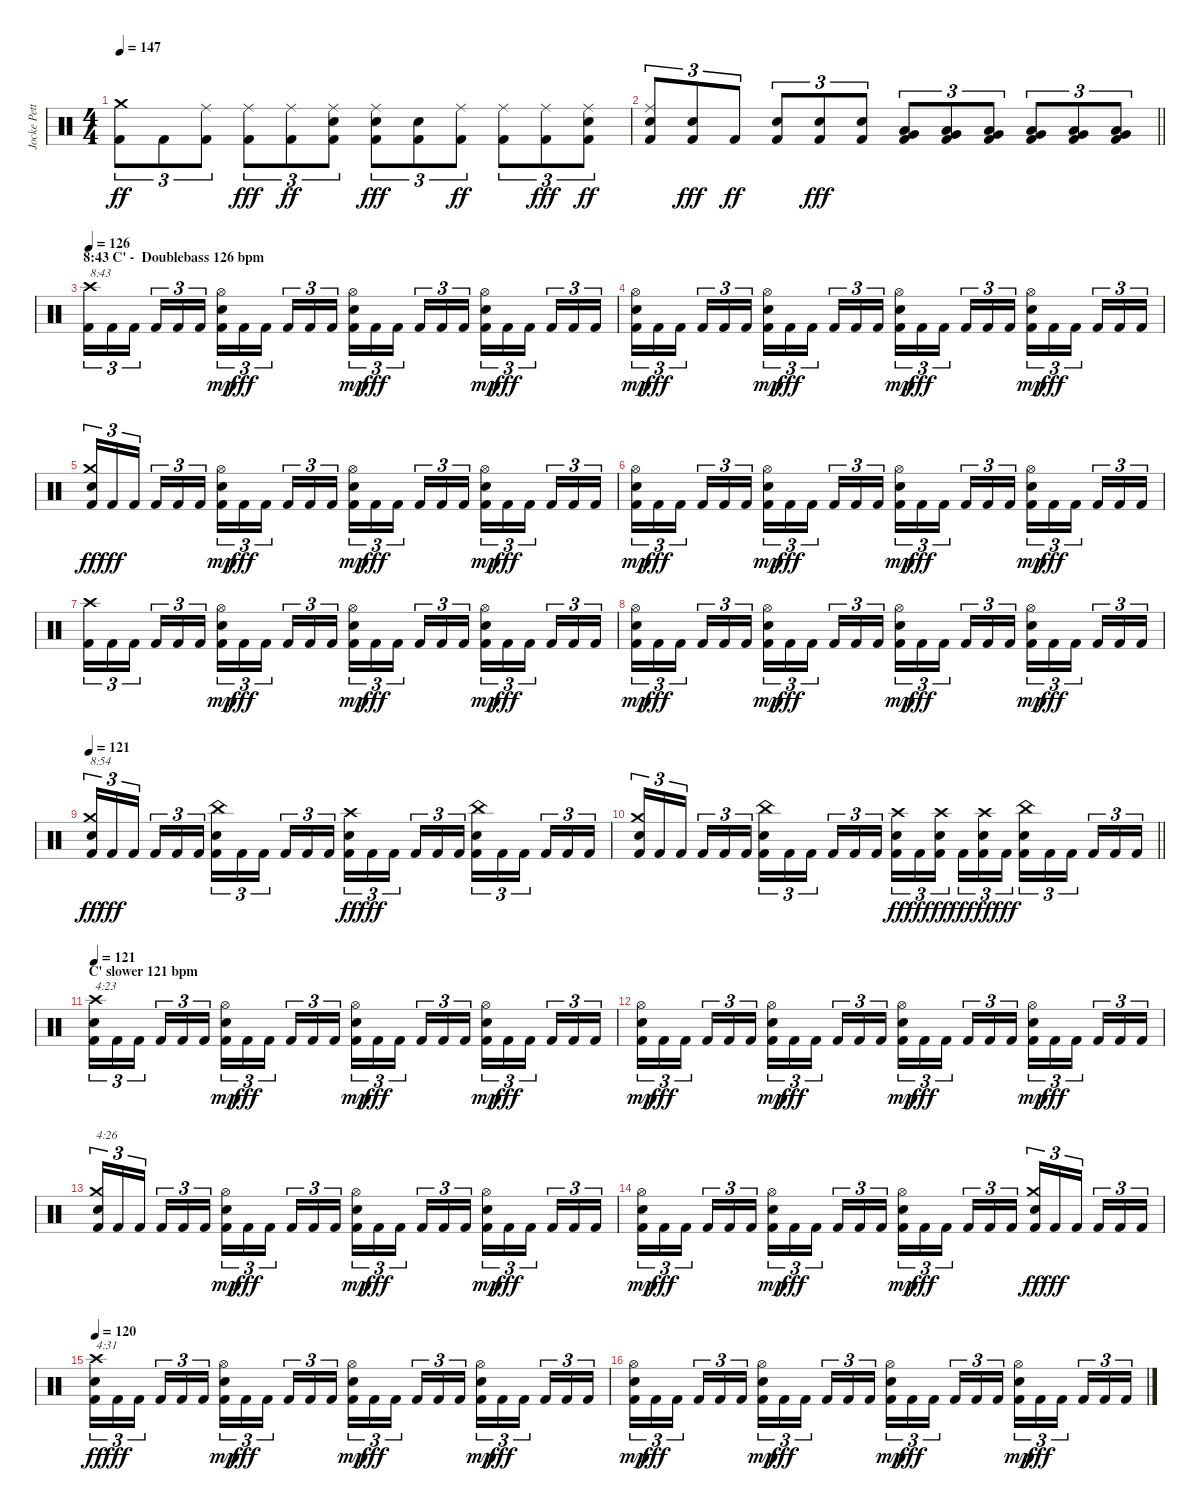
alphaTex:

\track ("Jocke Pettersson" "Jocke Pett") {instrument percussion}
\staff {score}
\articulation defaults
\ts (4 4)
\tempo 147
\clef neutral
\ks c
("Kick (hit) 2" "Crash medium (hit)").8{tu (3 2) dy ff} "Kick (hit) 2".8{tu (3 2)} ("Kick (hit) 2" "Ride (middle)").8{tu (3 2)} ("Kick (hit) 2" "Ride (middle)").8{tu (3 2) dy fff} ("Kick (hit) 2" "Ride (middle)").8{tu (3 2) dy ff} ("Kick (hit) 2" "Electric Snare (hit)" "Ride (middle)").8{tu (3 2)} ("Kick (hit) 2" "Electric Snare (hit)" "Ride (middle)").8{tu (3 2) dy fff} ("Kick (hit) 2" "Electric Snare (hit)").8{tu (3 2)} ("Kick (hit) 2" "Ride (middle)").8{tu (3 2) dy ff} ("Kick (hit) 2" "Ride (middle)").8{tu (3 2)} ("Kick (hit) 2" "Ride (middle)").8{tu (3 2) dy fff} ("Kick (hit) 2" "Electric Snare (hit)" "Ride (middle)").8{tu (3 2) dy ff} |
\barLineRight lightlight
("Kick (hit) 2" "Electric Snare (hit)" "Ride (middle)").8{tu (3 2)} ("Kick (hit) 2" "Electric Snare (hit)").8{tu (3 2) dy fff} "Kick (hit) 2".8{tu (3 2) dy ff} ("Kick (hit) 2" "Electric Snare (hit)").8{tu (3 2)} ("Kick (hit) 2" "Electric Snare (hit)").8{tu (3 2) dy fff} ("Kick (hit) 2" "Electric Snare (hit)").8{tu (3 2)} ("Kick (hit) 2" "Low Tom (hit)" "Very Low Tom (hit)").8{tu (3 2)} ("Kick (hit) 2" "Low Tom (hit)" "Very Low Tom (hit)").8{tu (3 2)} ("Kick (hit) 2" "Low Tom (hit)" "Very Low Tom (hit)").8{tu (3 2)} ("Kick (hit) 2" "Very Low Tom (hit)" "Low Floor Tom (hit)").8{tu (3 2)} ("Kick (hit) 2" "Very Low Tom (hit)" "Low Floor Tom (hit)").8{tu (3 2)} ("Kick (hit) 2" "Very Low Tom (hit)" "Low Floor Tom (hit)").8{tu (3 2)} |
\section ("" "8:43 C' -  Doublebass 126 bpm")
\tempo 126
("Kick (hit) 2" "Crash high (hit)").16{tu (3 2) txt "8:43"} "Kick (hit) 2".16{tu (3 2)} "Kick (hit) 2".16{tu (3 2) beam splitsecondary} "Kick (hit) 2".16{tu (3 2)} "Kick (hit) 2".16{tu (3 2)} "Kick (hit) 2".16{tu (3 2)} ("Kick (hit) 2" "Electric Snare (hit)" "Hi-Hat (open)").16{tu (3 2) dy mp} "Kick (hit) 2".16{tu (3 2) dy fff} "Kick (hit) 2".16{tu (3 2) beam splitsecondary} "Kick (hit) 2".16{tu (3 2)} "Kick (hit) 2".16{tu (3 2)} "Kick (hit) 2".16{tu (3 2)} ("Kick (hit) 2" "Electric Snare (hit)" "Hi-Hat (open)").16{tu (3 2) dy mp} "Kick (hit) 2".16{tu (3 2) dy fff} "Kick (hit) 2".16{tu (3 2) beam splitsecondary} "Kick (hit) 2".16{tu (3 2)} "Kick (hit) 2".16{tu (3 2)} "Kick (hit) 2".16{tu (3 2)} ("Kick (hit) 2" "Electric Snare (hit)" "Hi-Hat (open)").16{tu (3 2) dy mp} "Kick (hit) 2".16{tu (3 2) dy fff} "Kick (hit) 2".16{tu (3 2) beam splitsecondary} "Kick (hit) 2".16{tu (3 2)} "Kick (hit) 2".16{tu (3 2)} "Kick (hit) 2".16{tu (3 2)} |
("Kick (hit) 2" "Electric Snare (hit)" "Hi-Hat (open)").16{tu (3 2) dy mp} "Kick (hit) 2".16{tu (3 2) dy fff} "Kick (hit) 2".16{tu (3 2) beam splitsecondary} "Kick (hit) 2".16{tu (3 2)} "Kick (hit) 2".16{tu (3 2)} "Kick (hit) 2".16{tu (3 2)} ("Kick (hit) 2" "Electric Snare (hit)" "Hi-Hat (open)").16{tu (3 2) dy mp} "Kick (hit) 2".16{tu (3 2) dy fff} "Kick (hit) 2".16{tu (3 2) beam splitsecondary} "Kick (hit) 2".16{tu (3 2)} "Kick (hit) 2".16{tu (3 2)} "Kick (hit) 2".16{tu (3 2)} ("Kick (hit) 2" "Electric Snare (hit)" "Hi-Hat (open)").16{tu (3 2) dy mp} "Kick (hit) 2".16{tu (3 2) dy fff} "Kick (hit) 2".16{tu (3 2) beam splitsecondary} "Kick (hit) 2".16{tu (3 2)} "Kick (hit) 2".16{tu (3 2)} "Kick (hit) 2".16{tu (3 2)} ("Kick (hit) 2" "Electric Snare (hit)" "Hi-Hat (open)").16{tu (3 2) dy mp} "Kick (hit) 2".16{tu (3 2) dy fff} "Kick (hit) 2".16{tu (3 2) beam splitsecondary} "Kick (hit) 2".16{tu (3 2)} "Kick (hit) 2".16{tu (3 2)} "Kick (hit) 2".16{tu (3 2)} |
("Kick (hit) 2" "Electric Snare (hit)" "Crash medium (hit)").16{tu (3 2) dy ff} "Kick (hit) 2".16{tu (3 2) dy fff} "Kick (hit) 2".16{tu (3 2) beam splitsecondary} "Kick (hit) 2".16{tu (3 2)} "Kick (hit) 2".16{tu (3 2)} "Kick (hit) 2".16{tu (3 2)} ("Kick (hit) 2" "Electric Snare (hit)" "Hi-Hat (open)").16{tu (3 2) dy mp} "Kick (hit) 2".16{tu (3 2) dy fff} "Kick (hit) 2".16{tu (3 2) beam splitsecondary} "Kick (hit) 2".16{tu (3 2)} "Kick (hit) 2".16{tu (3 2)} "Kick (hit) 2".16{tu (3 2)} ("Kick (hit) 2" "Electric Snare (hit)" "Hi-Hat (open)").16{tu (3 2) dy mp} "Kick (hit) 2".16{tu (3 2) dy fff} "Kick (hit) 2".16{tu (3 2) beam splitsecondary} "Kick (hit) 2".16{tu (3 2)} "Kick (hit) 2".16{tu (3 2)} "Kick (hit) 2".16{tu (3 2)} ("Kick (hit) 2" "Electric Snare (hit)" "Hi-Hat (open)").16{tu (3 2) dy mp} "Kick (hit) 2".16{tu (3 2) dy fff} "Kick (hit) 2".16{tu (3 2) beam splitsecondary} "Kick (hit) 2".16{tu (3 2)} "Kick (hit) 2".16{tu (3 2)} "Kick (hit) 2".16{tu (3 2)} |
("Kick (hit) 2" "Electric Snare (hit)" "Hi-Hat (open)").16{tu (3 2) dy mp} "Kick (hit) 2".16{tu (3 2) dy fff} "Kick (hit) 2".16{tu (3 2) beam splitsecondary} "Kick (hit) 2".16{tu (3 2)} "Kick (hit) 2".16{tu (3 2)} "Kick (hit) 2".16{tu (3 2)} ("Kick (hit) 2" "Electric Snare (hit)" "Hi-Hat (open)").16{tu (3 2) dy mp} "Kick (hit) 2".16{tu (3 2) dy fff} "Kick (hit) 2".16{tu (3 2) beam splitsecondary} "Kick (hit) 2".16{tu (3 2)} "Kick (hit) 2".16{tu (3 2)} "Kick (hit) 2".16{tu (3 2)} ("Kick (hit) 2" "Electric Snare (hit)" "Hi-Hat (open)").16{tu (3 2) dy mp} "Kick (hit) 2".16{tu (3 2) dy fff} "Kick (hit) 2".16{tu (3 2) beam splitsecondary} "Kick (hit) 2".16{tu (3 2)} "Kick (hit) 2".16{tu (3 2)} "Kick (hit) 2".16{tu (3 2)} ("Kick (hit) 2" "Electric Snare (hit)" "Hi-Hat (open)").16{tu (3 2) dy mp} "Kick (hit) 2".16{tu (3 2) dy fff} "Kick (hit) 2".16{tu (3 2) beam splitsecondary} "Kick (hit) 2".16{tu (3 2)} "Kick (hit) 2".16{tu (3 2)} "Kick (hit) 2".16{tu (3 2)} |
("Kick (hit) 2" "Crash high (hit)").16{tu (3 2)} "Kick (hit) 2".16{tu (3 2)} "Kick (hit) 2".16{tu (3 2) beam splitsecondary} "Kick (hit) 2".16{tu (3 2)} "Kick (hit) 2".16{tu (3 2)} "Kick (hit) 2".16{tu (3 2)} ("Kick (hit) 2" "Electric Snare (hit)" "Hi-Hat (open)").16{tu (3 2) dy mp} "Kick (hit) 2".16{tu (3 2) dy fff} "Kick (hit) 2".16{tu (3 2) beam splitsecondary} "Kick (hit) 2".16{tu (3 2)} "Kick (hit) 2".16{tu (3 2)} "Kick (hit) 2".16{tu (3 2)} ("Kick (hit) 2" "Electric Snare (hit)" "Hi-Hat (open)").16{tu (3 2) dy mp} "Kick (hit) 2".16{tu (3 2) dy fff} "Kick (hit) 2".16{tu (3 2) beam splitsecondary} "Kick (hit) 2".16{tu (3 2)} "Kick (hit) 2".16{tu (3 2)} "Kick (hit) 2".16{tu (3 2)} ("Kick (hit) 2" "Electric Snare (hit)" "Hi-Hat (open)").16{tu (3 2) dy mp} "Kick (hit) 2".16{tu (3 2) dy fff} "Kick (hit) 2".16{tu (3 2) beam splitsecondary} "Kick (hit) 2".16{tu (3 2)} "Kick (hit) 2".16{tu (3 2)} "Kick (hit) 2".16{tu (3 2)} |
("Kick (hit) 2" "Electric Snare (hit)" "Hi-Hat (open)").16{tu (3 2) dy mp} "Kick (hit) 2".16{tu (3 2) dy fff} "Kick (hit) 2".16{tu (3 2) beam splitsecondary} "Kick (hit) 2".16{tu (3 2)} "Kick (hit) 2".16{tu (3 2)} "Kick (hit) 2".16{tu (3 2)} ("Kick (hit) 2" "Electric Snare (hit)" "Hi-Hat (open)").16{tu (3 2) dy mp} "Kick (hit) 2".16{tu (3 2) dy fff} "Kick (hit) 2".16{tu (3 2) beam splitsecondary} "Kick (hit) 2".16{tu (3 2)} "Kick (hit) 2".16{tu (3 2)} "Kick (hit) 2".16{tu (3 2)} ("Kick (hit) 2" "Electric Snare (hit)" "Hi-Hat (open)").16{tu (3 2) dy mp} "Kick (hit) 2".16{tu (3 2) dy fff} "Kick (hit) 2".16{tu (3 2) beam splitsecondary} "Kick (hit) 2".16{tu (3 2)} "Kick (hit) 2".16{tu (3 2)} "Kick (hit) 2".16{tu (3 2)} ("Kick (hit) 2" "Electric Snare (hit)" "Hi-Hat (open)").16{tu (3 2) dy mp} "Kick (hit) 2".16{tu (3 2) dy fff} "Kick (hit) 2".16{tu (3 2) beam splitsecondary} "Kick (hit) 2".16{tu (3 2)} "Kick (hit) 2".16{tu (3 2)} "Kick (hit) 2".16{tu (3 2)} |
\tempo 121
("Kick (hit) 2" "Electric Snare (hit)" "Crash medium (hit)").16{tu (3 2) txt "8:54" dy ff} "Kick (hit) 2".16{tu (3 2) dy fff} "Kick (hit) 2".16{tu (3 2) beam splitsecondary} "Kick (hit) 2".16{tu (3 2)} "Kick (hit) 2".16{tu (3 2)} "Kick (hit) 2".16{tu (3 2)} ("Kick (hit) 2" "Electric Snare (hit)" "China (hit)").16{tu (3 2)} "Kick (hit) 2".16{tu (3 2)} "Kick (hit) 2".16{tu (3 2) beam splitsecondary} "Kick (hit) 2".16{tu (3 2)} "Kick (hit) 2".16{tu (3 2)} "Kick (hit) 2".16{tu (3 2)} ("Kick (hit) 2" "Electric Snare (hit)" "Crash high (hit)").16{tu (3 2) dy ff} "Kick (hit) 2".16{tu (3 2) dy fff} "Kick (hit) 2".16{tu (3 2) beam splitsecondary} "Kick (hit) 2".16{tu (3 2)} "Kick (hit) 2".16{tu (3 2)} "Kick (hit) 2".16{tu (3 2)} ("Kick (hit) 2" "Electric Snare (hit)" "China (hit)").16{tu (3 2)} "Kick (hit) 2".16{tu (3 2)} "Kick (hit) 2".16{tu (3 2) beam splitsecondary} "Kick (hit) 2".16{tu (3 2)} "Kick (hit) 2".16{tu (3 2)} "Kick (hit) 2".16{tu (3 2)} |
\barLineRight lightlight
("Kick (hit) 2" "Electric Snare (hit)" "Crash medium (hit)").16{tu (3 2)} "Kick (hit) 2".16{tu (3 2)} "Kick (hit) 2".16{tu (3 2) beam splitsecondary} "Kick (hit) 2".16{tu (3 2)} "Kick (hit) 2".16{tu (3 2)} "Kick (hit) 2".16{tu (3 2)} ("Kick (hit) 2" "Electric Snare (hit)" "China (hit)").16{tu (3 2)} "Kick (hit) 2".16{tu (3 2)} "Kick (hit) 2".16{tu (3 2) beam splitsecondary} "Kick (hit) 2".16{tu (3 2)} "Kick (hit) 2".16{tu (3 2)} "Kick (hit) 2".16{tu (3 2)} ("Kick (hit) 2" "Electric Snare (hit)" "Crash high (hit)").16{tu (3 2) dy ff} "Kick (hit) 2".16{tu (3 2) dy fff} ("Kick (hit) 2" "Electric Snare (hit)" "Crash high (hit)").16{tu (3 2) dy ff beam splitsecondary} "Kick (hit) 2".16{tu (3 2) dy fff} ("Kick (hit) 2" "Electric Snare (hit)" "Crash high (hit)").16{tu (3 2) dy ff} "Kick (hit) 2".16{tu (3 2) dy fff} ("Kick (hit) 2" "Electric Snare (hit)" "China (hit)").16{tu (3 2)} "Kick (hit) 2".16{tu (3 2)} "Kick (hit) 2".16{tu (3 2) beam splitsecondary} "Kick (hit) 2".16{tu (3 2)} "Kick (hit) 2".16{tu (3 2)} "Kick (hit) 2".16{tu (3 2)} |
\section ("" "C' slower 121 bpm")
\tempo 121
("Kick (hit) 2" "Electric Snare (hit)" "Crash high (hit)").16{tu (3 2) txt "4:23"} "Kick (hit) 2".16{tu (3 2)} "Kick (hit) 2".16{tu (3 2) beam splitsecondary} "Kick (hit) 2".16{tu (3 2)} "Kick (hit) 2".16{tu (3 2)} "Kick (hit) 2".16{tu (3 2)} ("Kick (hit) 2" "Electric Snare (hit)" "Hi-Hat (open)").16{tu (3 2) dy mp} "Kick (hit) 2".16{tu (3 2) dy fff} "Kick (hit) 2".16{tu (3 2) beam splitsecondary} "Kick (hit) 2".16{tu (3 2)} "Kick (hit) 2".16{tu (3 2)} "Kick (hit) 2".16{tu (3 2)} ("Kick (hit) 2" "Electric Snare (hit)" "Hi-Hat (open)").16{tu (3 2) dy mp} "Kick (hit) 2".16{tu (3 2) dy fff} "Kick (hit) 2".16{tu (3 2) beam splitsecondary} "Kick (hit) 2".16{tu (3 2)} "Kick (hit) 2".16{tu (3 2)} "Kick (hit) 2".16{tu (3 2)} ("Kick (hit) 2" "Electric Snare (hit)" "Hi-Hat (open)").16{tu (3 2) dy mp} "Kick (hit) 2".16{tu (3 2) dy fff} "Kick (hit) 2".16{tu (3 2) beam splitsecondary} "Kick (hit) 2".16{tu (3 2)} "Kick (hit) 2".16{tu (3 2)} "Kick (hit) 2".16{tu (3 2)} |
("Kick (hit) 2" "Electric Snare (hit)" "Hi-Hat (open)").16{tu (3 2) dy mp} "Kick (hit) 2".16{tu (3 2) dy fff} "Kick (hit) 2".16{tu (3 2) beam splitsecondary} "Kick (hit) 2".16{tu (3 2)} "Kick (hit) 2".16{tu (3 2)} "Kick (hit) 2".16{tu (3 2)} ("Kick (hit) 2" "Electric Snare (hit)" "Hi-Hat (open)").16{tu (3 2) dy mp} "Kick (hit) 2".16{tu (3 2) dy fff} "Kick (hit) 2".16{tu (3 2) beam splitsecondary} "Kick (hit) 2".16{tu (3 2)} "Kick (hit) 2".16{tu (3 2)} "Kick (hit) 2".16{tu (3 2)} ("Kick (hit) 2" "Electric Snare (hit)" "Hi-Hat (open)").16{tu (3 2) dy mp} "Kick (hit) 2".16{tu (3 2) dy fff} "Kick (hit) 2".16{tu (3 2) beam splitsecondary} "Kick (hit) 2".16{tu (3 2)} "Kick (hit) 2".16{tu (3 2)} "Kick (hit) 2".16{tu (3 2)} ("Kick (hit) 2" "Electric Snare (hit)" "Hi-Hat (open)").16{tu (3 2) dy mp} "Kick (hit) 2".16{tu (3 2) dy fff} "Kick (hit) 2".16{tu (3 2) beam splitsecondary} "Kick (hit) 2".16{tu (3 2)} "Kick (hit) 2".16{tu (3 2)} "Kick (hit) 2".16{tu (3 2)} |
("Kick (hit) 2" "Electric Snare (hit)" "Crash medium (hit)").16{tu (3 2) txt "4:26"} "Kick (hit) 2".16{tu (3 2)} "Kick (hit) 2".16{tu (3 2) beam splitsecondary} "Kick (hit) 2".16{tu (3 2)} "Kick (hit) 2".16{tu (3 2)} "Kick (hit) 2".16{tu (3 2)} ("Kick (hit) 2" "Electric Snare (hit)" "Hi-Hat (open)").16{tu (3 2) dy mp} "Kick (hit) 2".16{tu (3 2) dy fff} "Kick (hit) 2".16{tu (3 2) beam splitsecondary} "Kick (hit) 2".16{tu (3 2)} "Kick (hit) 2".16{tu (3 2)} "Kick (hit) 2".16{tu (3 2)} ("Kick (hit) 2" "Electric Snare (hit)" "Hi-Hat (open)").16{tu (3 2) dy mp} "Kick (hit) 2".16{tu (3 2) dy fff} "Kick (hit) 2".16{tu (3 2) beam splitsecondary} "Kick (hit) 2".16{tu (3 2)} "Kick (hit) 2".16{tu (3 2)} "Kick (hit) 2".16{tu (3 2)} ("Kick (hit) 2" "Electric Snare (hit)" "Hi-Hat (open)").16{tu (3 2) dy mp} "Kick (hit) 2".16{tu (3 2) dy fff} "Kick (hit) 2".16{tu (3 2) beam splitsecondary} "Kick (hit) 2".16{tu (3 2)} "Kick (hit) 2".16{tu (3 2)} "Kick (hit) 2".16{tu (3 2)} |
("Kick (hit) 2" "Electric Snare (hit)" "Hi-Hat (open)").16{tu (3 2) dy mp} "Kick (hit) 2".16{tu (3 2) dy fff} "Kick (hit) 2".16{tu (3 2) beam splitsecondary} "Kick (hit) 2".16{tu (3 2)} "Kick (hit) 2".16{tu (3 2)} "Kick (hit) 2".16{tu (3 2)} ("Kick (hit) 2" "Electric Snare (hit)" "Hi-Hat (open)").16{tu (3 2) dy mp} "Kick (hit) 2".16{tu (3 2) dy fff} "Kick (hit) 2".16{tu (3 2) beam splitsecondary} "Kick (hit) 2".16{tu (3 2)} "Kick (hit) 2".16{tu (3 2)} "Kick (hit) 2".16{tu (3 2)} ("Kick (hit) 2" "Electric Snare (hit)" "Hi-Hat (open)").16{tu (3 2) dy mp} "Kick (hit) 2".16{tu (3 2) dy fff} "Kick (hit) 2".16{tu (3 2) beam splitsecondary} "Kick (hit) 2".16{tu (3 2)} "Kick (hit) 2".16{tu (3 2)} "Kick (hit) 2".16{tu (3 2)} ("Kick (hit) 2" "Electric Snare (hit)" "Crash medium (hit)").16{tu (3 2) dy ff} "Kick (hit) 2".16{tu (3 2) dy fff} "Kick (hit) 2".16{tu (3 2) beam splitsecondary} "Kick (hit) 2".16{tu (3 2)} "Kick (hit) 2".16{tu (3 2)} "Kick (hit) 2".16{tu (3 2)} |
\tempo 120
("Kick (hit) 2" "Electric Snare (hit)" "Crash high (hit)").16{tu (3 2) txt "4:31" dy ff} "Kick (hit) 2".16{tu (3 2) dy fff} "Kick (hit) 2".16{tu (3 2) beam splitsecondary} "Kick (hit) 2".16{tu (3 2)} "Kick (hit) 2".16{tu (3 2)} "Kick (hit) 2".16{tu (3 2)} ("Kick (hit) 2" "Electric Snare (hit)" "Hi-Hat (open)").16{tu (3 2) dy mp} "Kick (hit) 2".16{tu (3 2) dy fff} "Kick (hit) 2".16{tu (3 2) beam splitsecondary} "Kick (hit) 2".16{tu (3 2)} "Kick (hit) 2".16{tu (3 2)} "Kick (hit) 2".16{tu (3 2)} ("Kick (hit) 2" "Electric Snare (hit)" "Hi-Hat (open)").16{tu (3 2) dy mp} "Kick (hit) 2".16{tu (3 2) dy fff} "Kick (hit) 2".16{tu (3 2) beam splitsecondary} "Kick (hit) 2".16{tu (3 2)} "Kick (hit) 2".16{tu (3 2)} "Kick (hit) 2".16{tu (3 2)} ("Kick (hit) 2" "Electric Snare (hit)" "Hi-Hat (open)").16{tu (3 2) dy mp} "Kick (hit) 2".16{tu (3 2) dy fff} "Kick (hit) 2".16{tu (3 2) beam splitsecondary} "Kick (hit) 2".16{tu (3 2)} "Kick (hit) 2".16{tu (3 2)} "Kick (hit) 2".16{tu (3 2)} |
("Kick (hit) 2" "Electric Snare (hit)" "Hi-Hat (open)").16{tu (3 2) dy mp} "Kick (hit) 2".16{tu (3 2) dy fff} "Kick (hit) 2".16{tu (3 2) beam splitsecondary} "Kick (hit) 2".16{tu (3 2)} "Kick (hit) 2".16{tu (3 2)} "Kick (hit) 2".16{tu (3 2)} ("Kick (hit) 2" "Electric Snare (hit)" "Hi-Hat (open)").16{tu (3 2) dy mp} "Kick (hit) 2".16{tu (3 2) dy fff} "Kick (hit) 2".16{tu (3 2) beam splitsecondary} "Kick (hit) 2".16{tu (3 2)} "Kick (hit) 2".16{tu (3 2)} "Kick (hit) 2".16{tu (3 2)} ("Kick (hit) 2" "Electric Snare (hit)" "Hi-Hat (open)").16{tu (3 2) dy mp} "Kick (hit) 2".16{tu (3 2) dy fff} "Kick (hit) 2".16{tu (3 2) beam splitsecondary} "Kick (hit) 2".16{tu (3 2)} "Kick (hit) 2".16{tu (3 2)} "Kick (hit) 2".16{tu (3 2)} ("Kick (hit) 2" "Electric Snare (hit)" "Hi-Hat (open)").16{tu (3 2) dy mp} "Kick (hit) 2".16{tu (3 2) dy fff} "Kick (hit) 2".16{tu (3 2) beam splitsecondary} "Kick (hit) 2".16{tu (3 2)} "Kick (hit) 2".16{tu (3 2)} "Kick (hit) 2".16{tu (3 2)}
